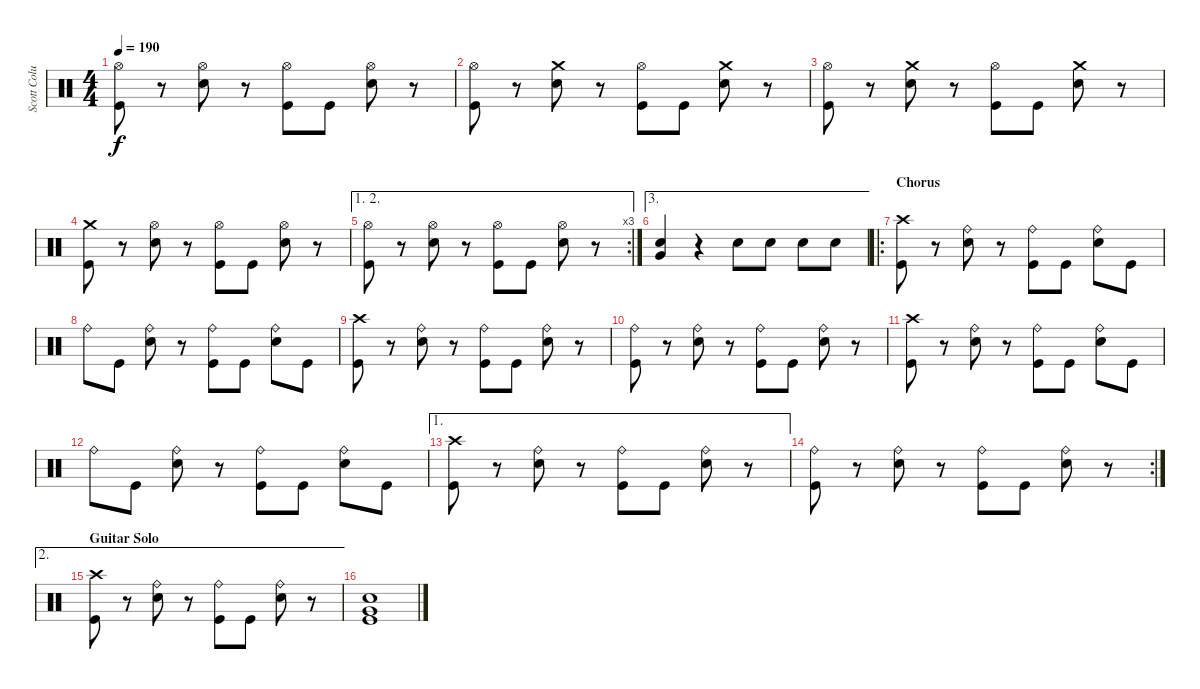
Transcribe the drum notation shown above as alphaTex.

\track ("Scott Columbus" "Scott Colu") {instrument percussion}
\staff {score}
\articulation defaults
\ts (4 4)
\tempo 190
\clef neutral
\ks c
("Hi-Hat (open)" "Kick (hit)").8{dy f} r.8 ("Hi-Hat (open)" "Snare (hit) 2").8 r.8 ("Hi-Hat (open)" "Kick (hit)").8 "Kick (hit)".8 ("Hi-Hat (open)" "Snare (hit) 2").8 r.8 |
("Hi-Hat (open)" "Kick (hit)").8 r.8 ("Crash medium (hit)" "Snare (hit) 2").8 r.8 ("Hi-Hat (open)" "Kick (hit)").8 "Kick (hit)".8 ("Crash medium (hit)" "Snare (hit) 2").8 r.8 |
("Hi-Hat (open)" "Kick (hit)").8 r.8 ("Crash medium (hit)" "Snare (hit) 2").8 r.8 ("Hi-Hat (open)" "Kick (hit)").8 "Kick (hit)".8 ("Crash medium (hit)" "Snare (hit) 2").8 r.8 |
("Crash medium (hit)" "Kick (hit)").8 r.8 ("Hi-Hat (open)" "Snare (hit) 2").8 r.8 ("Hi-Hat (open)" "Kick (hit)").8 "Kick (hit)".8 ("Hi-Hat (open)" "Snare (hit) 2").8 r.8 |
\ae (1 2)
\rc 3
("Hi-Hat (open)" "Kick (hit)").8 r.8 ("Hi-Hat (open)" "Snare (hit) 2").8 r.8 ("Hi-Hat (open)" "Kick (hit)").8 "Kick (hit)".8 ("Hi-Hat (open)" "Snare (hit) 2").8 r.8 |
\ae 3
("Very Low Tom (hit)" "Snare (hit) 2").4 r.4 "Snare (hit) 2".8 "Snare (hit) 2".8 "Snare (hit) 2".8 "Snare (hit) 2".8 |
\ro
\section ("" "Chorus")
("Crash high (hit)" "Kick (hit)").8 r.8 ("Ride (bell)" "Snare (hit) 2").8 r.8 ("Ride (bell)" "Kick (hit)").8 "Kick (hit)".8 ("Ride (bell)" "Snare (hit) 2").8 "Kick (hit)".8 |
"Ride (bell)".8 "Kick (hit)".8 ("Ride (bell)" "Snare (hit) 2").8 r.8 ("Ride (bell)" "Kick (hit)").8 "Kick (hit)".8 ("Ride (bell)" "Snare (hit) 2").8 "Kick (hit)".8 |
("Crash high (hit)" "Kick (hit)").8 r.8 ("Ride (bell)" "Snare (hit) 2").8 r.8 ("Ride (bell)" "Kick (hit)").8 "Kick (hit)".8 ("Ride (bell)" "Snare (hit) 2").8 r.8 |
("Ride (bell)" "Kick (hit)").8 r.8 ("Ride (bell)" "Snare (hit) 2").8 r.8 ("Ride (bell)" "Kick (hit)").8 "Kick (hit)".8 ("Ride (bell)" "Snare (hit) 2").8 r.8 |
("Crash high (hit)" "Kick (hit)").8 r.8 ("Ride (bell)" "Snare (hit) 2").8 r.8 ("Ride (bell)" "Kick (hit)").8 "Kick (hit)".8 ("Ride (bell)" "Snare (hit) 2").8 "Kick (hit)".8 |
"Ride (bell)".8 "Kick (hit)".8 ("Ride (bell)" "Snare (hit) 2").8 r.8 ("Ride (bell)" "Kick (hit)").8 "Kick (hit)".8 ("Ride (bell)" "Snare (hit) 2").8 "Kick (hit)".8 |
\ae 1
("Crash high (hit)" "Kick (hit)").8 r.8 ("Ride (bell)" "Snare (hit) 2").8 r.8 ("Ride (bell)" "Kick (hit)").8 "Kick (hit)".8 ("Ride (bell)" "Snare (hit) 2").8 r.8 |
\rc 2
("Ride (bell)" "Kick (hit)").8 r.8 ("Ride (bell)" "Snare (hit) 2").8 r.8 ("Ride (bell)" "Kick (hit)").8 "Kick (hit)".8 ("Ride (bell)" "Snare (hit) 2").8 r.8 |
\ae 2
\section ("" "Guitar Solo")
("Crash high (hit)" "Kick (hit)").8 r.8 ("Ride (bell)" "Snare (hit) 2").8 r.8 ("Ride (bell)" "Kick (hit)").8 "Kick (hit)".8 ("Ride (bell)" "Snare (hit) 2").8 r.8 |
("Very Low Tom (hit)" "Snare (hit) 2" "Kick (hit)").1
